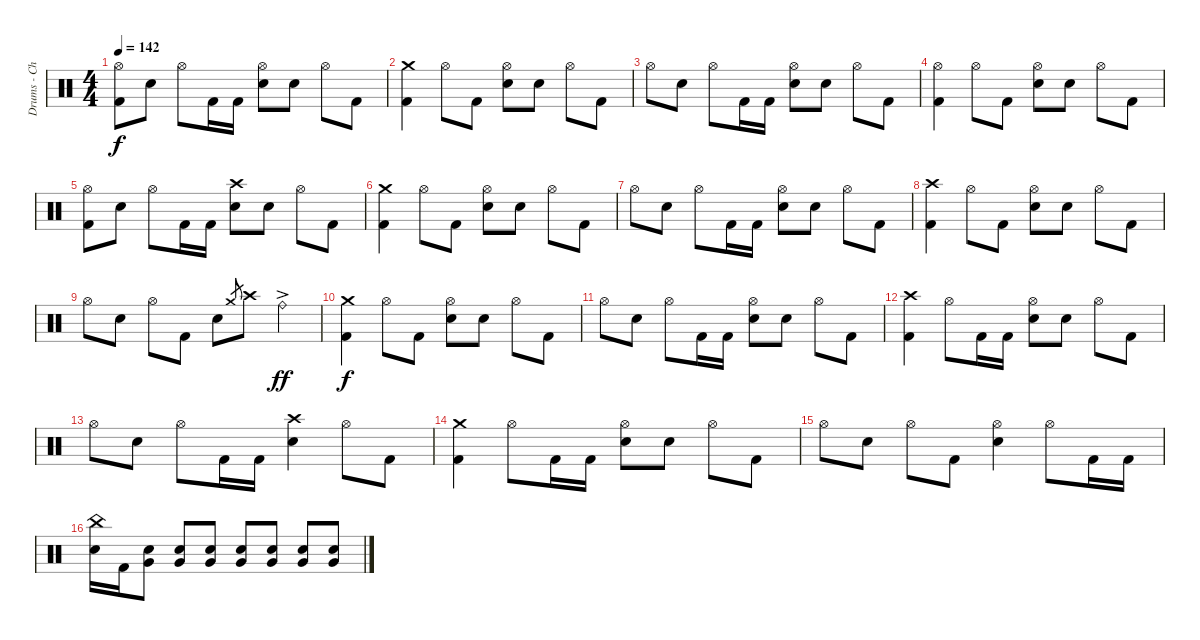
\track ("Drums - Christopher Hornbrook" "Drums - Ch") {instrument percussion}
\staff {score}
\articulation defaults
\ts (4 4)
\tempo 142
\clef neutral
\ks c
("Hi-Hat (open)" "Kick (hit) 2").8{dy f} "Electric Snare (hit)".8 "Hi-Hat (open)".8 "Kick (hit) 2".16 "Kick (hit) 2".16 ("Hi-Hat (open)" "Electric Snare (hit)").8 "Electric Snare (hit)".8 "Hi-Hat (open)".8 "Kick (hit) 2".8 |
("Crash medium (hit)" "Kick (hit) 2").4 "Hi-Hat (open)".8 "Kick (hit) 2".8 ("Hi-Hat (open)" "Electric Snare (hit)").8 "Electric Snare (hit)".8 "Hi-Hat (open)".8 "Kick (hit) 2".8 |
"Hi-Hat (open)".8 "Electric Snare (hit)".8 "Hi-Hat (open)".8 "Kick (hit) 2".16 "Kick (hit) 2".16 ("Hi-Hat (open)" "Electric Snare (hit)").8 "Electric Snare (hit)".8 "Hi-Hat (open)".8 "Kick (hit) 2".8 |
("Hi-Hat (open)" "Kick (hit) 2").4 "Hi-Hat (open)".8 "Kick (hit) 2".8 ("Hi-Hat (open)" "Electric Snare (hit)").8 "Electric Snare (hit)".8 "Hi-Hat (open)".8 "Kick (hit) 2".8 |
("Hi-Hat (open)" "Kick (hit) 2").8 "Electric Snare (hit)".8 "Hi-Hat (open)".8 "Kick (hit) 2".16 "Kick (hit) 2".16 ("Crash high (hit)" "Electric Snare (hit)").8 "Electric Snare (hit)".8 "Hi-Hat (open)".8 "Kick (hit) 2".8 |
("Crash medium (hit)" "Kick (hit) 2").4 "Hi-Hat (open)".8 "Kick (hit) 2".8 ("Hi-Hat (open)" "Electric Snare (hit)").8 "Electric Snare (hit)".8 "Hi-Hat (open)".8 "Kick (hit) 2".8 |
"Hi-Hat (open)".8 "Electric Snare (hit)".8 "Hi-Hat (open)".8 "Kick (hit) 2".16 "Kick (hit) 2".16 ("Hi-Hat (open)" "Electric Snare (hit)").8 "Electric Snare (hit)".8 "Hi-Hat (open)".8 "Kick (hit) 2".8 |
("Crash high (hit)" "Kick (hit) 2").4 "Hi-Hat (open)".8 "Kick (hit) 2".8 ("Hi-Hat (open)" "Electric Snare (hit)").8 "Electric Snare (hit)".8 "Hi-Hat (open)".8 "Kick (hit) 2".8 |
"Hi-Hat (open)".8 "Electric Snare (hit)".8 "Hi-Hat (open)".8 "Kick (hit) 2".8 "Electric Snare (hit)".8 "Crash medium (hit)".8{gr} "Crash high (hit)".8 "Ride (bell)"{ac}.4{dy ff} |
("Crash medium (hit)" "Kick (hit) 2").4{dy f} "Hi-Hat (open)".8 "Kick (hit) 2".8 ("Hi-Hat (open)" "Electric Snare (hit)").8 "Electric Snare (hit)".8 "Hi-Hat (open)".8 "Kick (hit) 2".8 |
"Hi-Hat (open)".8 "Electric Snare (hit)".8 "Hi-Hat (open)".8 "Kick (hit) 2".16 "Kick (hit) 2".16 ("Hi-Hat (open)" "Electric Snare (hit)").8 "Electric Snare (hit)".8 "Hi-Hat (open)".8 "Kick (hit) 2".8 |
("Crash high (hit)" "Kick (hit) 2").4 "Hi-Hat (open)".8 "Kick (hit) 2".16 "Kick (hit) 2".16 ("Hi-Hat (open)" "Electric Snare (hit)").8 "Electric Snare (hit)".8 "Hi-Hat (open)".8 "Kick (hit) 2".8 |
"Hi-Hat (open)".8 "Electric Snare (hit)".8 "Hi-Hat (open)".8 "Kick (hit) 2".16 "Kick (hit) 2".16 ("Crash high (hit)" "Electric Snare (hit)").4 "Hi-Hat (open)".8 "Kick (hit) 2".8 |
("Crash medium (hit)" "Kick (hit) 2").4 "Hi-Hat (open)".8 "Kick (hit) 2".16 "Kick (hit) 2".16 ("Hi-Hat (open)" "Electric Snare (hit)").8 "Electric Snare (hit)".8 "Hi-Hat (open)".8 "Kick (hit) 2".8 |
"Hi-Hat (open)".8 "Electric Snare (hit)".8 "Hi-Hat (open)".8 "Kick (hit) 2".8 ("Hi-Hat (open)" "Electric Snare (hit)").4 "Hi-Hat (open)".8 "Kick (hit) 2".16 "Kick (hit) 2".16 |
("China (hit)" "Electric Snare (hit)").16 "Kick (hit) 2".16 ("Very Low Tom (hit)" "Electric Snare (hit)").8{bu 120 volume 8} ("Very Low Tom (hit)" "Electric Snare (hit)").8{bu 120 volume 14} ("Very Low Tom (hit)" "Electric Snare (hit)").8{bu 120} ("Very Low Tom (hit)" "Electric Snare (hit)").8{bu 120} ("Very Low Tom (hit)" "Electric Snare (hit)").8{bu 120} ("Very Low Tom (hit)" "Electric Snare (hit)").8{bu 120} ("Very Low Tom (hit)" "Electric Snare (hit)").8{bu 120}
